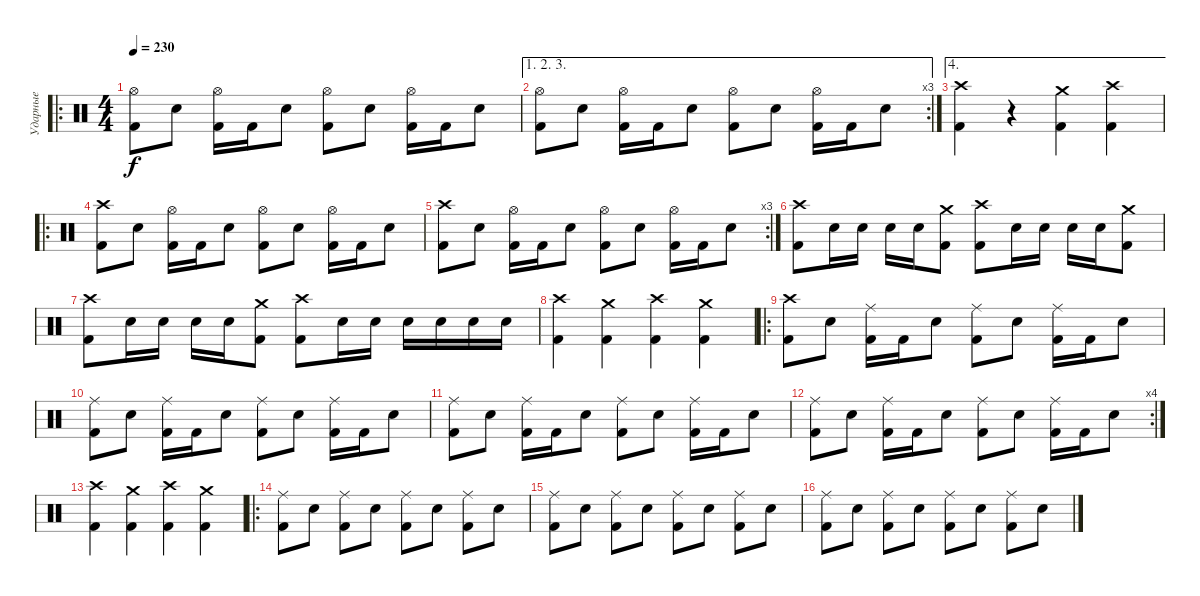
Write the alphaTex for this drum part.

\track ("Ударные" "Ударные") {instrument percussion}
\staff {score}
\articulation defaults
\ro
\ts (4 4)
\tempo 230
\clef neutral
\ks c
("Hi-Hat (open)" "Kick (hit) 2").8{dy f} "Snare (hit) 2".8 ("Hi-Hat (open)" "Kick (hit) 2").16 "Kick (hit) 2".16 "Snare (hit) 2".8 ("Hi-Hat (open)" "Kick (hit) 2").8 "Snare (hit) 2".8 ("Hi-Hat (open)" "Kick (hit) 2").16 "Kick (hit) 2".16 "Snare (hit) 2".8 |
\ae (1 2 3)
\rc 3
("Hi-Hat (open)" "Kick (hit) 2").8 "Snare (hit) 2".8 ("Hi-Hat (open)" "Kick (hit) 2").16 "Kick (hit) 2".16 "Snare (hit) 2".8 ("Hi-Hat (open)" "Kick (hit) 2").8 "Snare (hit) 2".8 ("Hi-Hat (open)" "Kick (hit) 2").16 "Kick (hit) 2".16 "Snare (hit) 2".8 |
\ae 4
("Crash high (hit)" "Kick (hit) 2").4 r.4 ("Crash medium (hit)" "Kick (hit) 2").4 ("Crash high (hit)" "Kick (hit) 2").4 |
\ro
("Crash high (hit)" "Kick (hit) 2").8 "Snare (hit) 2".8 ("Hi-Hat (open)" "Kick (hit) 2").16 "Kick (hit) 2".16 "Snare (hit) 2".8 ("Hi-Hat (open)" "Kick (hit) 2").8 "Snare (hit) 2".8 ("Hi-Hat (open)" "Kick (hit) 2").16 "Kick (hit) 2".16 "Snare (hit) 2".8 |
\rc 3
("Crash high (hit)" "Kick (hit) 2").8 "Snare (hit) 2".8 ("Hi-Hat (open)" "Kick (hit) 2").16 "Kick (hit) 2".16 "Snare (hit) 2".8 ("Hi-Hat (open)" "Kick (hit) 2").8 "Snare (hit) 2".8 ("Hi-Hat (open)" "Kick (hit) 2").16 "Kick (hit) 2".16 "Snare (hit) 2".8 |
("Crash high (hit)" "Kick (hit) 2").8 "Snare (hit) 2".16 "Snare (hit) 2".16 "Snare (hit) 2".16 "Snare (hit) 2".16 ("Crash medium (hit)" "Kick (hit) 2").8 ("Crash high (hit)" "Kick (hit) 2").8 "Snare (hit) 2".16 "Snare (hit) 2".16 "Snare (hit) 2".16 "Snare (hit) 2".16 ("Crash medium (hit)" "Kick (hit) 2").8 |
("Crash high (hit)" "Kick (hit) 2").8 "Snare (hit) 2".16 "Snare (hit) 2".16 "Snare (hit) 2".16 "Snare (hit) 2".16 ("Crash medium (hit)" "Kick (hit) 2").8 ("Crash high (hit)" "Kick (hit) 2").8 "Snare (hit) 2".16 "Snare (hit) 2".16 "Snare (hit) 2".16 "Snare (hit) 2".16 "Snare (hit) 2".16 "Snare (hit) 2".16 |
("Crash high (hit)" "Kick (hit) 2").4 ("Crash medium (hit)" "Kick (hit) 2").4 ("Crash high (hit)" "Kick (hit) 2").4 ("Crash medium (hit)" "Kick (hit) 2").4 |
\ro
("Crash high (hit)" "Kick (hit) 2").8 "Snare (hit) 2".8 ("Ride (middle)" "Kick (hit) 2").16 "Kick (hit) 2".16 "Snare (hit) 2".8 ("Ride (middle)" "Kick (hit) 2").8 "Snare (hit) 2".8 ("Ride (middle)" "Kick (hit) 2").16 "Kick (hit) 2".16 "Snare (hit) 2".8 |
("Ride (middle)" "Kick (hit) 2").8 "Snare (hit) 2".8 ("Ride (middle)" "Kick (hit) 2").16 "Kick (hit) 2".16 "Snare (hit) 2".8 ("Ride (middle)" "Kick (hit) 2").8 "Snare (hit) 2".8 ("Ride (middle)" "Kick (hit) 2").16 "Kick (hit) 2".16 "Snare (hit) 2".8 |
("Ride (middle)" "Kick (hit) 2").8 "Snare (hit) 2".8 ("Ride (middle)" "Kick (hit) 2").16 "Kick (hit) 2".16 "Snare (hit) 2".8 ("Ride (middle)" "Kick (hit) 2").8 "Snare (hit) 2".8 ("Ride (middle)" "Kick (hit) 2").16 "Kick (hit) 2".16 "Snare (hit) 2".8 |
\rc 4
("Ride (middle)" "Kick (hit) 2").8 "Snare (hit) 2".8 ("Ride (middle)" "Kick (hit) 2").16 "Kick (hit) 2".16 "Snare (hit) 2".8 ("Ride (middle)" "Kick (hit) 2").8 "Snare (hit) 2".8 ("Ride (middle)" "Kick (hit) 2").16 "Kick (hit) 2".16 "Snare (hit) 2".8 |
("Crash high (hit)" "Kick (hit) 2").4 ("Crash medium (hit)" "Kick (hit) 2").4 ("Crash high (hit)" "Kick (hit) 2").4 ("Crash medium (hit)" "Kick (hit) 2").4 |
\ro
("Ride (middle)" "Kick (hit) 2").8 "Snare (hit) 2".8 ("Ride (middle)" "Kick (hit) 2").8 "Snare (hit) 2".8 ("Ride (middle)" "Kick (hit) 2").8 "Snare (hit) 2".8 ("Ride (middle)" "Kick (hit) 2").8 "Snare (hit) 2".8 |
("Ride (middle)" "Kick (hit) 2").8 "Snare (hit) 2".8 ("Ride (middle)" "Kick (hit) 2").8 "Snare (hit) 2".8 ("Ride (middle)" "Kick (hit) 2").8 "Snare (hit) 2".8 ("Ride (middle)" "Kick (hit) 2").8 "Snare (hit) 2".8 |
("Ride (middle)" "Kick (hit) 2").8 "Snare (hit) 2".8 ("Ride (middle)" "Kick (hit) 2").8 "Snare (hit) 2".8 ("Ride (middle)" "Kick (hit) 2").8 "Snare (hit) 2".8 ("Ride (middle)" "Kick (hit) 2").8 "Snare (hit) 2".8
